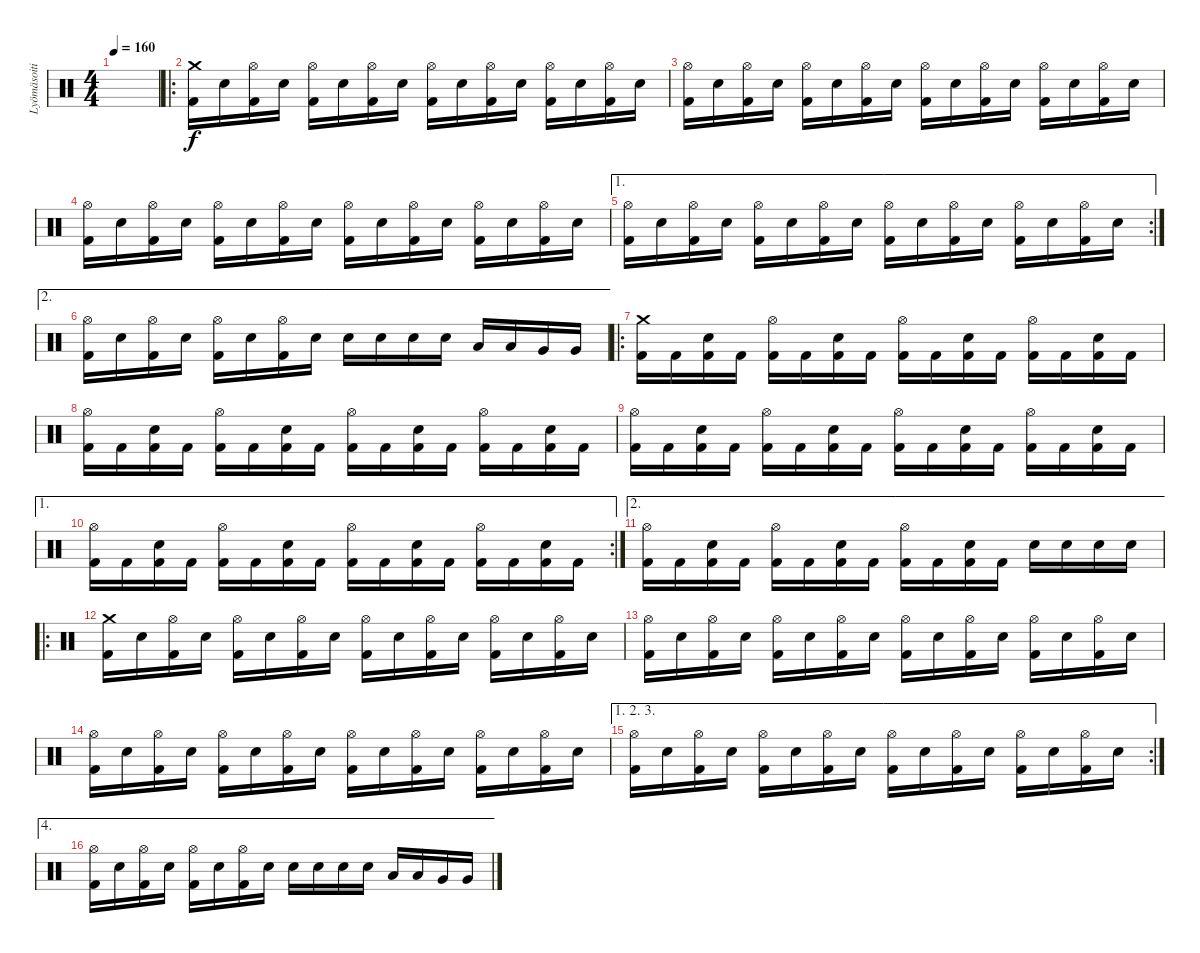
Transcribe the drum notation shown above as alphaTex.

\track ("Lyömäsoitin" "Lyömäsoiti") {instrument percussion}
\staff {score}
\articulation defaults
\ts (4 4)
\tempo 160
\clef neutral
\ks c
|
\ro
("Crash medium (hit)" "Kick (hit) 2").16 "Electric Snare (hit)".16 ("Hi-Hat (open)" "Kick (hit) 2").16 "Electric Snare (hit)".16 ("Hi-Hat (open)" "Kick (hit) 2").16 "Electric Snare (hit)".16 ("Hi-Hat (open)" "Kick (hit) 2").16 "Electric Snare (hit)".16 ("Hi-Hat (open)" "Kick (hit) 2").16 "Electric Snare (hit)".16 ("Hi-Hat (open)" "Kick (hit) 2").16 "Electric Snare (hit)".16 ("Hi-Hat (open)" "Kick (hit) 2").16 "Electric Snare (hit)".16 ("Hi-Hat (open)" "Kick (hit) 2").16 "Electric Snare (hit)".16 |
("Hi-Hat (open)" "Kick (hit) 2").16 "Electric Snare (hit)".16 ("Hi-Hat (open)" "Kick (hit) 2").16 "Electric Snare (hit)".16 ("Hi-Hat (open)" "Kick (hit) 2").16 "Electric Snare (hit)".16 ("Hi-Hat (open)" "Kick (hit) 2").16 "Electric Snare (hit)".16 ("Hi-Hat (open)" "Kick (hit) 2").16 "Electric Snare (hit)".16 ("Hi-Hat (open)" "Kick (hit) 2").16 "Electric Snare (hit)".16 ("Hi-Hat (open)" "Kick (hit) 2").16 "Electric Snare (hit)".16 ("Hi-Hat (open)" "Kick (hit) 2").16 "Electric Snare (hit)".16 |
("Hi-Hat (open)" "Kick (hit) 2").16 "Electric Snare (hit)".16 ("Hi-Hat (open)" "Kick (hit) 2").16 "Electric Snare (hit)".16 ("Hi-Hat (open)" "Kick (hit) 2").16 "Electric Snare (hit)".16 ("Hi-Hat (open)" "Kick (hit) 2").16 "Electric Snare (hit)".16 ("Hi-Hat (open)" "Kick (hit) 2").16 "Electric Snare (hit)".16 ("Hi-Hat (open)" "Kick (hit) 2").16 "Electric Snare (hit)".16 ("Hi-Hat (open)" "Kick (hit) 2").16 "Electric Snare (hit)".16 ("Hi-Hat (open)" "Kick (hit) 2").16 "Electric Snare (hit)".16 |
\ae 1
\rc 2
("Hi-Hat (open)" "Kick (hit) 2").16 "Electric Snare (hit)".16 ("Hi-Hat (open)" "Kick (hit) 2").16 "Electric Snare (hit)".16 ("Hi-Hat (open)" "Kick (hit) 2").16 "Electric Snare (hit)".16 ("Hi-Hat (open)" "Kick (hit) 2").16 "Electric Snare (hit)".16 ("Hi-Hat (open)" "Kick (hit) 2").16 "Electric Snare (hit)".16 ("Hi-Hat (open)" "Kick (hit) 2").16 "Electric Snare (hit)".16 ("Hi-Hat (open)" "Kick (hit) 2").16 "Electric Snare (hit)".16 ("Hi-Hat (open)" "Kick (hit) 2").16 "Electric Snare (hit)".16 |
\ae 2
("Hi-Hat (open)" "Kick (hit) 2").16 "Electric Snare (hit)".16 ("Hi-Hat (open)" "Kick (hit) 2").16 "Electric Snare (hit)".16 ("Hi-Hat (open)" "Kick (hit) 2").16 "Electric Snare (hit)".16 ("Hi-Hat (open)" "Kick (hit) 2").16 "Electric Snare (hit)".16 "Electric Snare (hit)".16 "Electric Snare (hit)".16 "Electric Snare (hit)".16 "Electric Snare (hit)".16 "Low Tom (hit)".16 "Low Tom (hit)".16 "Very Low Tom (hit)".16 "Very Low Tom (hit)".16 |
\ro
("Crash medium (hit)" "Kick (hit) 2").16 "Kick (hit) 2".16 ("Electric Snare (hit)" "Kick (hit) 2").16 "Kick (hit) 2".16 ("Hi-Hat (open)" "Kick (hit) 2").16 "Kick (hit) 2".16 ("Electric Snare (hit)" "Kick (hit) 2").16 "Kick (hit) 2".16 ("Hi-Hat (open)" "Kick (hit) 2").16 "Kick (hit) 2".16 ("Electric Snare (hit)" "Kick (hit) 2").16 "Kick (hit) 2".16 ("Hi-Hat (open)" "Kick (hit) 2").16 "Kick (hit) 2".16 ("Electric Snare (hit)" "Kick (hit) 2").16 "Kick (hit) 2".16 |
("Hi-Hat (open)" "Kick (hit) 2").16 "Kick (hit) 2".16 ("Electric Snare (hit)" "Kick (hit) 2").16 "Kick (hit) 2".16 ("Hi-Hat (open)" "Kick (hit) 2").16 "Kick (hit) 2".16 ("Electric Snare (hit)" "Kick (hit) 2").16 "Kick (hit) 2".16 ("Hi-Hat (open)" "Kick (hit) 2").16 "Kick (hit) 2".16 ("Electric Snare (hit)" "Kick (hit) 2").16 "Kick (hit) 2".16 ("Hi-Hat (open)" "Kick (hit) 2").16 "Kick (hit) 2".16 ("Electric Snare (hit)" "Kick (hit) 2").16 "Kick (hit) 2".16 |
("Hi-Hat (open)" "Kick (hit) 2").16 "Kick (hit) 2".16 ("Electric Snare (hit)" "Kick (hit) 2").16 "Kick (hit) 2".16 ("Hi-Hat (open)" "Kick (hit) 2").16 "Kick (hit) 2".16 ("Electric Snare (hit)" "Kick (hit) 2").16 "Kick (hit) 2".16 ("Hi-Hat (open)" "Kick (hit) 2").16 "Kick (hit) 2".16 ("Electric Snare (hit)" "Kick (hit) 2").16 "Kick (hit) 2".16 ("Hi-Hat (open)" "Kick (hit) 2").16 "Kick (hit) 2".16 ("Electric Snare (hit)" "Kick (hit) 2").16 "Kick (hit) 2".16 |
\ae 1
\rc 2
("Hi-Hat (open)" "Kick (hit) 2").16 "Kick (hit) 2".16 ("Electric Snare (hit)" "Kick (hit) 2").16 "Kick (hit) 2".16 ("Hi-Hat (open)" "Kick (hit) 2").16 "Kick (hit) 2".16 ("Electric Snare (hit)" "Kick (hit) 2").16 "Kick (hit) 2".16 ("Hi-Hat (open)" "Kick (hit) 2").16 "Kick (hit) 2".16 ("Electric Snare (hit)" "Kick (hit) 2").16 "Kick (hit) 2".16 ("Hi-Hat (open)" "Kick (hit) 2").16 "Kick (hit) 2".16 ("Electric Snare (hit)" "Kick (hit) 2").16 "Kick (hit) 2".16 |
\ae 2
("Hi-Hat (open)" "Kick (hit) 2").16 "Kick (hit) 2".16 ("Electric Snare (hit)" "Kick (hit) 2").16 "Kick (hit) 2".16 ("Hi-Hat (open)" "Kick (hit) 2").16 "Kick (hit) 2".16 ("Electric Snare (hit)" "Kick (hit) 2").16 "Kick (hit) 2".16 ("Hi-Hat (open)" "Kick (hit) 2").16 "Kick (hit) 2".16 ("Electric Snare (hit)" "Kick (hit) 2").16 "Kick (hit) 2".16 "Electric Snare (hit)".16 "Electric Snare (hit)".16 "Electric Snare (hit)".16 "Electric Snare (hit)".16 |
\ro
("Crash medium (hit)" "Kick (hit) 2").16 "Electric Snare (hit)".16 ("Hi-Hat (open)" "Kick (hit) 2").16 "Electric Snare (hit)".16 ("Hi-Hat (open)" "Kick (hit) 2").16 "Electric Snare (hit)".16 ("Hi-Hat (open)" "Kick (hit) 2").16 "Electric Snare (hit)".16 ("Hi-Hat (open)" "Kick (hit) 2").16 "Electric Snare (hit)".16 ("Hi-Hat (open)" "Kick (hit) 2").16 "Electric Snare (hit)".16 ("Hi-Hat (open)" "Kick (hit) 2").16 "Electric Snare (hit)".16 ("Hi-Hat (open)" "Kick (hit) 2").16 "Electric Snare (hit)".16 |
("Hi-Hat (open)" "Kick (hit) 2").16 "Electric Snare (hit)".16 ("Hi-Hat (open)" "Kick (hit) 2").16 "Electric Snare (hit)".16 ("Hi-Hat (open)" "Kick (hit) 2").16 "Electric Snare (hit)".16 ("Hi-Hat (open)" "Kick (hit) 2").16 "Electric Snare (hit)".16 ("Hi-Hat (open)" "Kick (hit) 2").16 "Electric Snare (hit)".16 ("Hi-Hat (open)" "Kick (hit) 2").16 "Electric Snare (hit)".16 ("Hi-Hat (open)" "Kick (hit) 2").16 "Electric Snare (hit)".16 ("Hi-Hat (open)" "Kick (hit) 2").16 "Electric Snare (hit)".16 |
("Hi-Hat (open)" "Kick (hit) 2").16 "Electric Snare (hit)".16 ("Hi-Hat (open)" "Kick (hit) 2").16 "Electric Snare (hit)".16 ("Hi-Hat (open)" "Kick (hit) 2").16 "Electric Snare (hit)".16 ("Hi-Hat (open)" "Kick (hit) 2").16 "Electric Snare (hit)".16 ("Hi-Hat (open)" "Kick (hit) 2").16 "Electric Snare (hit)".16 ("Hi-Hat (open)" "Kick (hit) 2").16 "Electric Snare (hit)".16 ("Hi-Hat (open)" "Kick (hit) 2").16 "Electric Snare (hit)".16 ("Hi-Hat (open)" "Kick (hit) 2").16 "Electric Snare (hit)".16 |
\ae (1 2 3)
\rc 2
("Hi-Hat (open)" "Kick (hit) 2").16 "Electric Snare (hit)".16 ("Hi-Hat (open)" "Kick (hit) 2").16 "Electric Snare (hit)".16 ("Hi-Hat (open)" "Kick (hit) 2").16 "Electric Snare (hit)".16 ("Hi-Hat (open)" "Kick (hit) 2").16 "Electric Snare (hit)".16 ("Hi-Hat (open)" "Kick (hit) 2").16 "Electric Snare (hit)".16 ("Hi-Hat (open)" "Kick (hit) 2").16 "Electric Snare (hit)".16 ("Hi-Hat (open)" "Kick (hit) 2").16 "Electric Snare (hit)".16 ("Hi-Hat (open)" "Kick (hit) 2").16 "Electric Snare (hit)".16 |
\ae 4
("Hi-Hat (open)" "Kick (hit) 2").16 "Electric Snare (hit)".16 ("Hi-Hat (open)" "Kick (hit) 2").16 "Electric Snare (hit)".16 ("Hi-Hat (open)" "Kick (hit) 2").16 "Electric Snare (hit)".16 ("Hi-Hat (open)" "Kick (hit) 2").16 "Electric Snare (hit)".16 "Electric Snare (hit)".16 "Electric Snare (hit)".16 "Electric Snare (hit)".16 "Electric Snare (hit)".16 "Low Tom (hit)".16 "Low Tom (hit)".16 "Very Low Tom (hit)".16 "Very Low Tom (hit)".16
